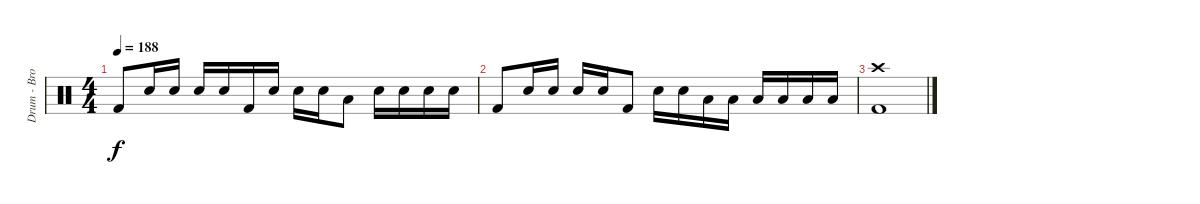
\track ("Drum - Brooks Wackerman" "Drum - Bro") {instrument percussion}
\staff {score}
\articulation defaults
\ts (4 4)
\tempo 188
\clef neutral
\ks c "Kick (hit) 2".8{dy f volume 14} "Electric Snare (hit)".16 "Electric Snare (hit)".16 "Electric Snare (hit)".16 "Electric Snare (hit)".16 "Kick (hit) 2".16 "Electric Snare (hit)".16 "Electric Snare (hit)".16 "Electric Snare (hit)".16 "Low Tom (hit)".8 "Electric Snare (hit)".16 "Electric Snare (hit)".16 "Electric Snare (hit)".16 "Electric Snare (hit)".16
|
"Kick (hit) 2".8 "Electric Snare (hit)".16 "Electric Snare (hit)".16 "Electric Snare (hit)".16 "Electric Snare (hit)".16 "Kick (hit) 2".8 "Electric Snare (hit)".16 "Electric Snare (hit)".16 "Low Tom (hit)".16 "Low Tom (hit)".16 "Low Floor Tom (hit)".16 "Low Floor Tom (hit)".16 "Low Floor Tom (hit)".16 "Low Floor Tom (hit)".16 |
("Crash high (hit)" "Kick (hit) 2").1
